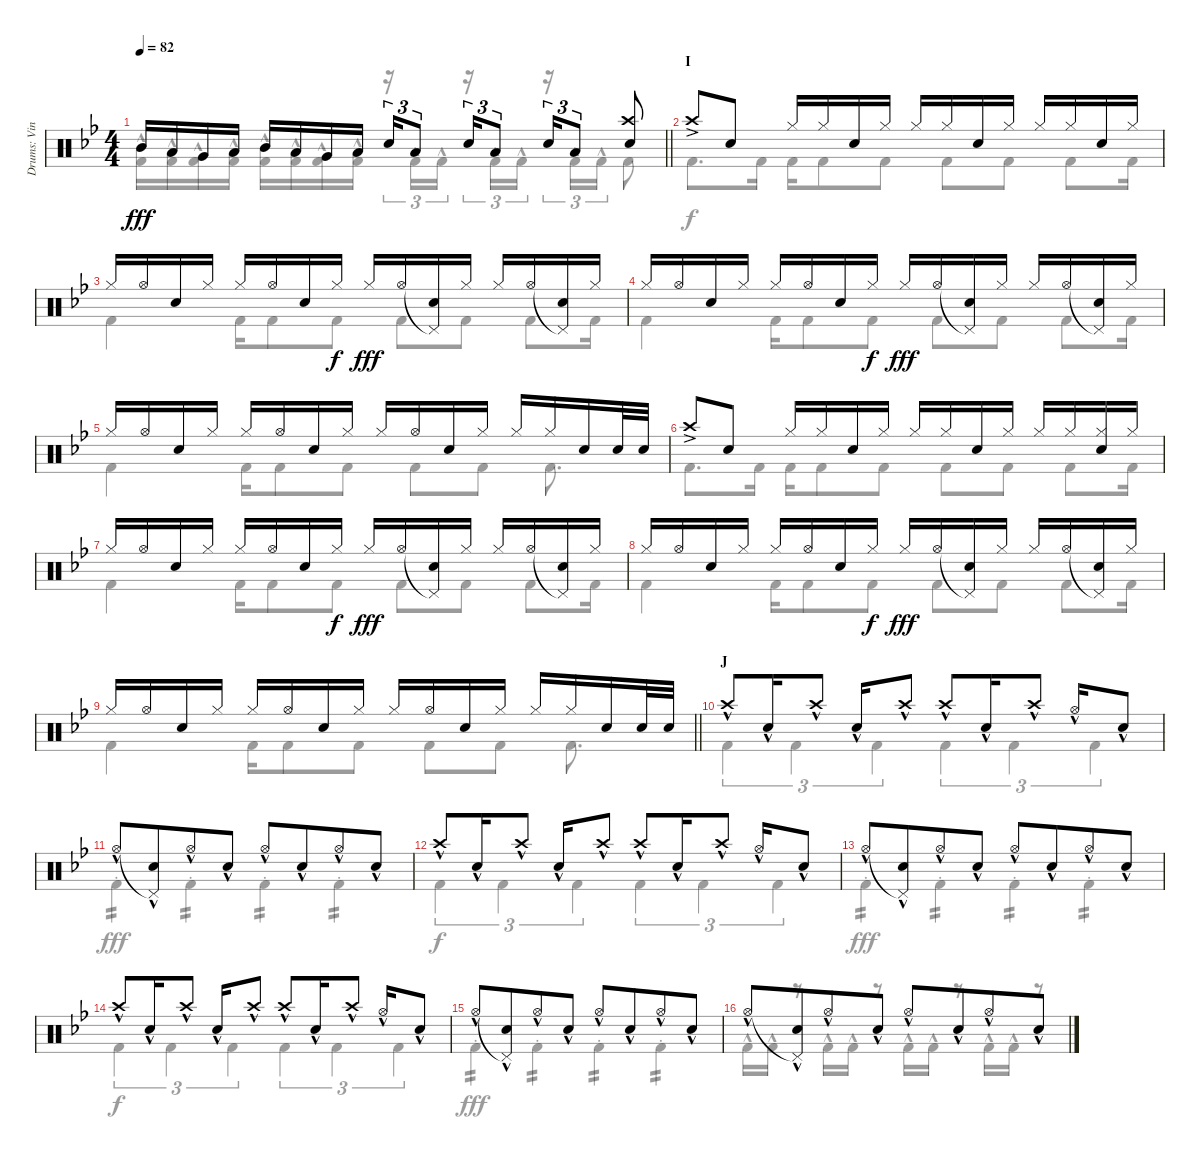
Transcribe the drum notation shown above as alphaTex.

\track ("Drums: Vinny" "Drums: Vin") {instrument percussion}
\staff {score}
\articulation defaults
\voice
\ts (4 4)
\tempo 82
\clef neutral
\barLineRight lightlight
\ks bb "Mid Tom (hit)".16{dy fff} "Low Tom (hit)".16 "Very Low Tom (hit)".16 "Low Floor Tom (hit)".16 "Mid Tom (hit)".16 "Low Tom (hit)".16 "Very Low Tom (hit)".16 "Low Floor Tom (hit)".16 "Snare (hit) 2".16{tu (3 2)} "Low Tom (hit)".8{tu (3 2)} "Snare (hit) 2".16{tu (3 2)} "Low Tom (hit)".8{tu (3 2)} "Snare (hit) 2".16{tu (3 2)} "Low Tom (hit)".8{tu (3 2)}
("Crash high (hit)" "Snare (hit) 2").8 |
\section ("" "I")
"Crash high (hit)"{ac}.8 "Snare (hit) 2".8 "Hi-Hat (closed)".16 "Hi-Hat (closed)".16 "Snare (hit) 2".16 "Hi-Hat (closed)".16 "Hi-Hat (closed)".16 "Hi-Hat (closed)".16 "Snare (hit) 2".16 "Hi-Hat (closed)".16 "Hi-Hat (closed)".16 "Hi-Hat (closed)".16 "Snare (hit) 2".16 "Hi-Hat (closed)".16 |
"Hi-Hat (closed)".16 "Hi-Hat (open)".16 "Snare (hit) 2".16 "Hi-Hat (closed)".16 "Hi-Hat (closed)".16 "Hi-Hat (open)".16 "Snare (hit) 2".16 "Hi-Hat (closed)".16{dy f} "Hi-Hat (closed)".16{dy fff} "Hi-Hat (open)".16 ("Pedal Hi-Hat (hit)"{t} "Snare (hit) 2").16 "Hi-Hat (closed)".16 "Hi-Hat (closed)".16 "Hi-Hat (open)".16 ("Pedal Hi-Hat (hit)"{t} "Snare (hit) 2").16 "Hi-Hat (closed)".16 |
"Hi-Hat (closed)".16 "Hi-Hat (open)".16 "Snare (hit) 2".16 "Hi-Hat (closed)".16 "Hi-Hat (closed)".16 "Hi-Hat (open)".16 "Snare (hit) 2".16 "Hi-Hat (closed)".16{dy f} "Hi-Hat (closed)".16{dy fff} "Hi-Hat (open)".16 ("Pedal Hi-Hat (hit)"{t} "Snare (hit) 2").16 "Hi-Hat (closed)".16 "Hi-Hat (closed)".16 "Hi-Hat (open)".16 ("Pedal Hi-Hat (hit)"{t} "Snare (hit) 2").16 "Hi-Hat (closed)".16 |
"Hi-Hat (closed)".16 "Hi-Hat (open)".16 "Snare (hit) 2".16 "Hi-Hat (closed)".16 "Hi-Hat (closed)".16 "Hi-Hat (open)".16 "Snare (hit) 2".16 "Hi-Hat (closed)".16 "Hi-Hat (closed)".16 "Hi-Hat (open)".16 "Snare (hit) 2".16 "Hi-Hat (closed)".16 "Hi-Hat (closed)".16 "Hi-Hat (closed)".16 "Snare (hit) 2".16 "Snare (hit) 2".32 "Snare (hit) 2".32 |
"Crash high (hit)"{ac}.8 "Snare (hit) 2".8 "Hi-Hat (closed)".16 "Hi-Hat (closed)".16 "Snare (hit) 2".16 "Hi-Hat (closed)".16 "Hi-Hat (closed)".16 "Hi-Hat (closed)".16 "Snare (hit) 2".16 "Hi-Hat (closed)".16 "Hi-Hat (closed)".16 "Hi-Hat (closed)".16 ("Hi-Hat (closed)" "Snare (hit) 2").16 "Hi-Hat (closed)".16 |
"Hi-Hat (closed)".16 "Hi-Hat (open)".16 "Snare (hit) 2".16 "Hi-Hat (closed)".16 "Hi-Hat (closed)".16 "Hi-Hat (open)".16 "Snare (hit) 2".16 "Hi-Hat (closed)".16{dy f} "Hi-Hat (closed)".16{dy fff} "Hi-Hat (open)".16 ("Pedal Hi-Hat (hit)"{t} "Snare (hit) 2").16 "Hi-Hat (closed)".16 "Hi-Hat (closed)".16 "Hi-Hat (open)".16 ("Pedal Hi-Hat (hit)"{t} "Snare (hit) 2").16 "Hi-Hat (closed)".16 |
"Hi-Hat (closed)".16 "Hi-Hat (open)".16 "Snare (hit) 2".16 "Hi-Hat (closed)".16 "Hi-Hat (closed)".16 "Hi-Hat (open)".16 "Snare (hit) 2".16 "Hi-Hat (closed)".16{dy f} "Hi-Hat (closed)".16{dy fff} "Hi-Hat (open)".16 ("Pedal Hi-Hat (hit)"{t} "Snare (hit) 2").16 "Hi-Hat (closed)".16 "Hi-Hat (closed)".16 "Hi-Hat (open)".16 ("Pedal Hi-Hat (hit)"{t} "Snare (hit) 2").16 "Hi-Hat (closed)".16 |
\barLineRight lightlight "Hi-Hat (closed)".16 "Hi-Hat (open)".16 "Snare (hit) 2".16 "Hi-Hat (closed)".16 "Hi-Hat (closed)".16 "Hi-Hat (open)".16 "Snare (hit) 2".16 "Hi-Hat (closed)".16 "Hi-Hat (closed)".16 "Hi-Hat (open)".16 "Snare (hit) 2".16 "Hi-Hat (closed)".16 "Hi-Hat (closed)".16 "Hi-Hat (closed)".16 "Snare (hit) 2".16 "Snare (hit) 2".32 "Snare (hit) 2".32
|
\section ("" "J")
"Crash high (hit)"{hac}.8 "Snare (hit) 2"{hac}.16 "Crash high (hit)"{hac}.8 "Snare (hit) 2"{hac}.16 "Crash high (hit)"{hac}.8 "Crash high (hit)"{hac}.8 "Snare (hit) 2"{hac}.16 "Crash high (hit)"{hac}.8 "Hi-Hat (open)"{hac}.16 "Snare (hit) 2"{hac}.8 |
"Hi-Hat (open)"{hac}.8 ("Pedal Hi-Hat (hit)"{t} "Snare (hit) 2"{hac}).8{beam merge} "Hi-Hat (open)"{hac}.8 "Snare (hit) 2"{hac}.8 "Hi-Hat (open)"{hac}.8 "Snare (hit) 2"{hac}.8{beam merge} "Hi-Hat (open)"{hac}.8 "Snare (hit) 2"{hac}.8 |
"Crash high (hit)"{hac}.8 "Snare (hit) 2"{hac}.16 "Crash high (hit)"{hac}.8 "Snare (hit) 2"{hac}.16 "Crash high (hit)"{hac}.8 "Crash high (hit)"{hac}.8 "Snare (hit) 2"{hac}.16 "Crash high (hit)"{hac}.8 "Hi-Hat (open)"{hac}.16 "Snare (hit) 2"{hac}.8 |
"Hi-Hat (open)"{hac}.8 ("Pedal Hi-Hat (hit)"{t} "Snare (hit) 2"{hac}).8{beam merge} "Hi-Hat (open)"{hac}.8 "Snare (hit) 2"{hac}.8 "Hi-Hat (open)"{hac}.8 "Snare (hit) 2"{hac}.8{beam merge} "Hi-Hat (open)"{hac}.8 "Snare (hit) 2"{hac}.8 |
"Crash high (hit)"{hac}.8 "Snare (hit) 2"{hac}.16 "Crash high (hit)"{hac}.8 "Snare (hit) 2"{hac}.16 "Crash high (hit)"{hac}.8 "Crash high (hit)"{hac}.8 "Snare (hit) 2"{hac}.16 "Crash high (hit)"{hac}.8 "Hi-Hat (open)"{hac}.16 "Snare (hit) 2"{hac}.8 |
"Hi-Hat (open)"{hac}.8 ("Pedal Hi-Hat (hit)"{t} "Snare (hit) 2"{hac}).8{beam merge} "Hi-Hat (open)"{hac}.8 "Snare (hit) 2"{hac}.8 "Hi-Hat (open)"{hac}.8 "Snare (hit) 2"{hac}.8{beam merge} "Hi-Hat (open)"{hac}.8 "Snare (hit) 2"{hac}.8 |
"Hi-Hat (open)"{hac}.8 ("Pedal Hi-Hat (hit)"{t} "Snare (hit) 2"{hac}).8{beam merge} "Hi-Hat (open)"{hac}.8 "Snare (hit) 2"{hac}.8 "Hi-Hat (open)"{hac}.8 "Snare (hit) 2"{hac}.8{beam merge} "Hi-Hat (open)"{hac}.8 "Snare (hit) 2"{hac}.8
\voice
\clef neutral
\ottava regular
\simile none
\barLineRight lightlight
\ks bb
("Mid Tom (hit)" "Kick (hit) 2"{hac}).16{dy fff} ("Low Tom (hit)" "Kick (hit) 2"{hac}).16 ("Very Low Tom (hit)" "Kick (hit) 2"{hac}).16 ("Low Floor Tom (hit)" "Kick (hit) 2"{hac}).16 ("Mid Tom (hit)" "Kick (hit) 2"{hac}).16 ("Low Tom (hit)" "Kick (hit) 2"{hac}).16 ("Very Low Tom (hit)" "Kick (hit) 2"{hac}).16 ("Low Floor Tom (hit)" "Kick (hit) 2"{hac}).16 r.16{tu (3 2)} "Kick (hit) 2"{hac}.16{tu (3 2)} "Kick (hit) 2"{hac}.16{tu (3 2)} r.16{tu (3 2)} "Kick (hit) 2"{hac}.16{tu (3 2)} "Kick (hit) 2"{hac}.16{tu (3 2)} r.16{tu (3 2)} "Kick (hit) 2"{hac}.16{tu (3 2)} "Kick (hit) 2"{hac}.16{tu (3 2)} "Kick (hit) 2".8 |
"Kick (hit) 2".8{d dy f} "Kick (hit) 2".16 "Kick (hit) 2".16 "Kick (hit) 2".8 "Kick (hit) 2".8 "Kick (hit) 2".8 "Kick (hit) 2".8 "Kick (hit) 2".8 "Kick (hit) 2".16 |
"Kick (hit) 2".4 "Kick (hit) 2".16 "Kick (hit) 2".8 "Kick (hit) 2".8 "Kick (hit) 2".8 "Kick (hit) 2".8 "Kick (hit) 2".8 "Kick (hit) 2".16 |
"Kick (hit) 2".4 "Kick (hit) 2".16 "Kick (hit) 2".8 "Kick (hit) 2".8 "Kick (hit) 2".8 "Kick (hit) 2".8 "Kick (hit) 2".8 "Kick (hit) 2".16 |
"Kick (hit) 2".4 "Kick (hit) 2".16 "Kick (hit) 2".8 "Kick (hit) 2".8 "Kick (hit) 2".8 "Kick (hit) 2".8 "Kick (hit) 2".8{d} |
"Kick (hit) 2".8{d} "Kick (hit) 2".16 "Kick (hit) 2".16 "Kick (hit) 2".8 "Kick (hit) 2".8 "Kick (hit) 2".8 "Kick (hit) 2".8 "Kick (hit) 2".8 "Kick (hit) 2".16 |
"Kick (hit) 2".4 "Kick (hit) 2".16 "Kick (hit) 2".8 "Kick (hit) 2".8 "Kick (hit) 2".8 "Kick (hit) 2".8 "Kick (hit) 2".8 "Kick (hit) 2".16 |
"Kick (hit) 2".4 "Kick (hit) 2".16 "Kick (hit) 2".8 "Kick (hit) 2".8 "Kick (hit) 2".8 "Kick (hit) 2".8 "Kick (hit) 2".8 "Kick (hit) 2".16 |
\barLineRight lightlight "Kick (hit) 2".4 "Kick (hit) 2".16 "Kick (hit) 2".8 "Kick (hit) 2".8 "Kick (hit) 2".8 "Kick (hit) 2".8 "Kick (hit) 2".8{d}
|
"Kick (hit) 2".4{tu (3 2)} "Kick (hit) 2".4{tu (3 2)} "Kick (hit) 2".4{tu (3 2)} "Kick (hit) 2".4{tu (3 2)} "Kick (hit) 2".4{tu (3 2)} "Kick (hit) 2".4{tu (3 2)} |
"Kick (hit) 2"{st}.4{tp 2 dy fff} "Kick (hit) 2"{st}.4{tp 2} "Kick (hit) 2"{st}.4{tp 2} "Kick (hit) 2"{st}.4{tp 2} |
"Kick (hit) 2".4{tu (3 2) dy f} "Kick (hit) 2".4{tu (3 2)} "Kick (hit) 2".4{tu (3 2)} "Kick (hit) 2".4{tu (3 2)} "Kick (hit) 2".4{tu (3 2)} "Kick (hit) 2".4{tu (3 2)} |
"Kick (hit) 2"{st}.4{tp 2 dy fff} "Kick (hit) 2"{st}.4{tp 2} "Kick (hit) 2"{st}.4{tp 2} "Kick (hit) 2"{st}.4{tp 2} |
"Kick (hit) 2".4{tu (3 2) dy f} "Kick (hit) 2".4{tu (3 2)} "Kick (hit) 2".4{tu (3 2)} "Kick (hit) 2".4{tu (3 2)} "Kick (hit) 2".4{tu (3 2)} "Kick (hit) 2".4{tu (3 2)} |
"Kick (hit) 2"{st}.4{tp 2 dy fff} "Kick (hit) 2"{st}.4{tp 2} "Kick (hit) 2"{st}.4{tp 2} "Kick (hit) 2"{st}.4{tp 2} |
"Kick (hit) 2"{hac}.16 "Kick (hit) 2"{hac}.16 r.8 "Kick (hit) 2"{hac}.16 "Kick (hit) 2"{hac}.16 r.8 "Kick (hit) 2"{hac}.16 "Kick (hit) 2"{hac}.16 r.8 "Kick (hit) 2"{hac}.16 "Kick (hit) 2"{hac}.16 r.8
